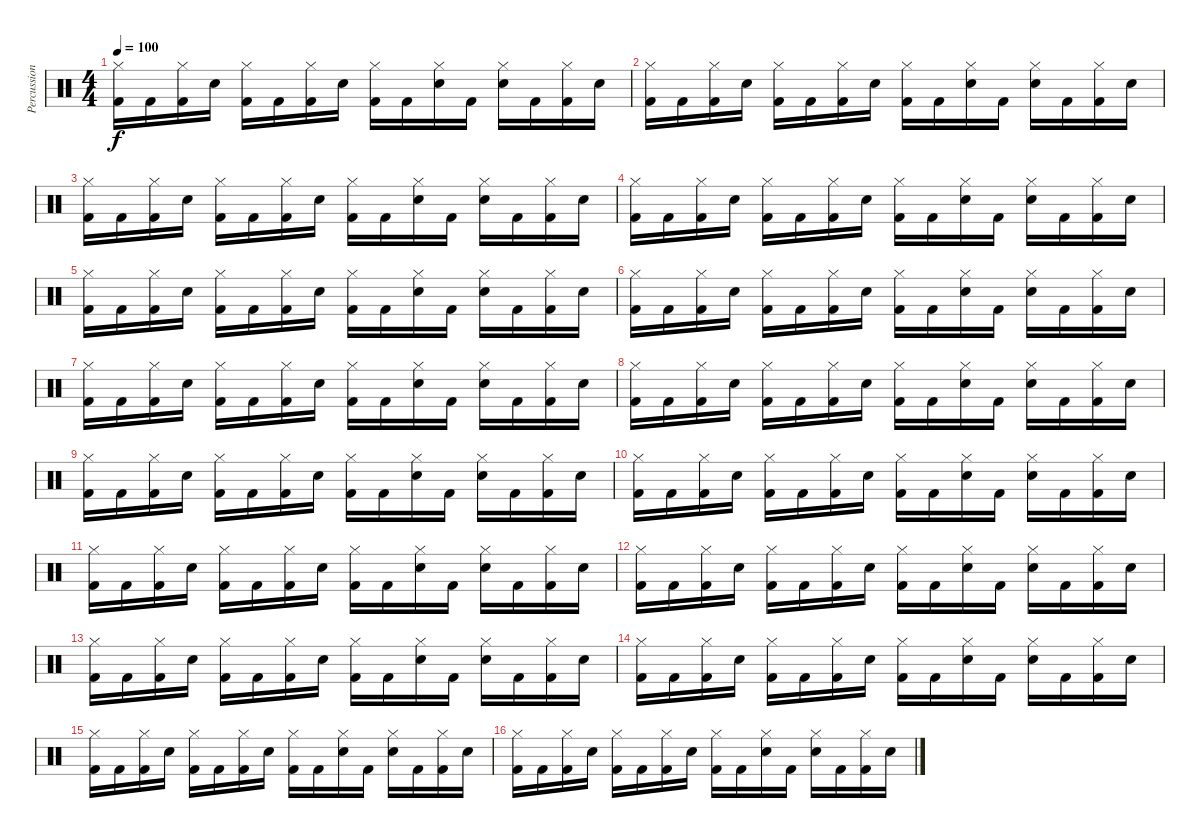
\track ("Percussion" "Percussion") {instrument percussion}
\staff {score}
\articulation defaults
\ts (4 4)
\tempo 100
\clef neutral
\ks c
("Hi-Hat (closed)" "Kick (hit) 2").16{dy f} "Kick (hit) 2".16 ("Hi-Hat (closed)" "Kick (hit) 2").16 "Electric Snare (hit)".16 ("Hi-Hat (closed)" "Kick (hit) 2").16 "Kick (hit) 2".16 ("Hi-Hat (closed)" "Kick (hit) 2").16 "Electric Snare (hit)".16 ("Hi-Hat (closed)" "Kick (hit) 2").16 "Kick (hit) 2".16 ("Hi-Hat (closed)" "Electric Snare (hit)").16 "Kick (hit) 2".16 ("Hi-Hat (closed)" "Electric Snare (hit)").16 "Kick (hit) 2".16 ("Hi-Hat (closed)" "Kick (hit) 2").16 "Electric Snare (hit)".16 |
("Hi-Hat (closed)" "Kick (hit) 2").16 "Kick (hit) 2".16 ("Hi-Hat (closed)" "Kick (hit) 2").16 "Electric Snare (hit)".16 ("Hi-Hat (closed)" "Kick (hit) 2").16 "Kick (hit) 2".16 ("Hi-Hat (closed)" "Kick (hit) 2").16 "Electric Snare (hit)".16 ("Hi-Hat (closed)" "Kick (hit) 2").16 "Kick (hit) 2".16 ("Hi-Hat (closed)" "Electric Snare (hit)").16 "Kick (hit) 2".16 ("Hi-Hat (closed)" "Electric Snare (hit)").16 "Kick (hit) 2".16 ("Hi-Hat (closed)" "Kick (hit) 2").16 "Electric Snare (hit)".16 |
("Hi-Hat (closed)" "Kick (hit) 2").16 "Kick (hit) 2".16 ("Hi-Hat (closed)" "Kick (hit) 2").16 "Electric Snare (hit)".16 ("Hi-Hat (closed)" "Kick (hit) 2").16 "Kick (hit) 2".16 ("Hi-Hat (closed)" "Kick (hit) 2").16 "Electric Snare (hit)".16 ("Hi-Hat (closed)" "Kick (hit) 2").16 "Kick (hit) 2".16 ("Hi-Hat (closed)" "Electric Snare (hit)").16 "Kick (hit) 2".16 ("Hi-Hat (closed)" "Electric Snare (hit)").16 "Kick (hit) 2".16 ("Hi-Hat (closed)" "Kick (hit) 2").16 "Electric Snare (hit)".16 |
("Hi-Hat (closed)" "Kick (hit) 2").16 "Kick (hit) 2".16 ("Hi-Hat (closed)" "Kick (hit) 2").16 "Electric Snare (hit)".16 ("Hi-Hat (closed)" "Kick (hit) 2").16 "Kick (hit) 2".16 ("Hi-Hat (closed)" "Kick (hit) 2").16 "Electric Snare (hit)".16 ("Hi-Hat (closed)" "Kick (hit) 2").16 "Kick (hit) 2".16 ("Hi-Hat (closed)" "Electric Snare (hit)").16 "Kick (hit) 2".16 ("Hi-Hat (closed)" "Electric Snare (hit)").16 "Kick (hit) 2".16 ("Hi-Hat (closed)" "Kick (hit) 2").16 "Electric Snare (hit)".16 |
("Hi-Hat (closed)" "Kick (hit) 2").16 "Kick (hit) 2".16 ("Hi-Hat (closed)" "Kick (hit) 2").16 "Electric Snare (hit)".16 ("Hi-Hat (closed)" "Kick (hit) 2").16 "Kick (hit) 2".16 ("Hi-Hat (closed)" "Kick (hit) 2").16 "Electric Snare (hit)".16 ("Hi-Hat (closed)" "Kick (hit) 2").16 "Kick (hit) 2".16 ("Hi-Hat (closed)" "Electric Snare (hit)").16 "Kick (hit) 2".16 ("Hi-Hat (closed)" "Electric Snare (hit)").16 "Kick (hit) 2".16 ("Hi-Hat (closed)" "Kick (hit) 2").16 "Electric Snare (hit)".16 |
("Hi-Hat (closed)" "Kick (hit) 2").16 "Kick (hit) 2".16 ("Hi-Hat (closed)" "Kick (hit) 2").16 "Electric Snare (hit)".16 ("Hi-Hat (closed)" "Kick (hit) 2").16 "Kick (hit) 2".16 ("Hi-Hat (closed)" "Kick (hit) 2").16 "Electric Snare (hit)".16 ("Hi-Hat (closed)" "Kick (hit) 2").16 "Kick (hit) 2".16 ("Hi-Hat (closed)" "Electric Snare (hit)").16 "Kick (hit) 2".16 ("Hi-Hat (closed)" "Electric Snare (hit)").16 "Kick (hit) 2".16 ("Hi-Hat (closed)" "Kick (hit) 2").16 "Electric Snare (hit)".16 |
("Hi-Hat (closed)" "Kick (hit) 2").16 "Kick (hit) 2".16 ("Hi-Hat (closed)" "Kick (hit) 2").16 "Electric Snare (hit)".16 ("Hi-Hat (closed)" "Kick (hit) 2").16 "Kick (hit) 2".16 ("Hi-Hat (closed)" "Kick (hit) 2").16 "Electric Snare (hit)".16 ("Hi-Hat (closed)" "Kick (hit) 2").16 "Kick (hit) 2".16 ("Hi-Hat (closed)" "Electric Snare (hit)").16 "Kick (hit) 2".16 ("Hi-Hat (closed)" "Electric Snare (hit)").16 "Kick (hit) 2".16 ("Hi-Hat (closed)" "Kick (hit) 2").16 "Electric Snare (hit)".16 |
("Hi-Hat (closed)" "Kick (hit) 2").16 "Kick (hit) 2".16 ("Hi-Hat (closed)" "Kick (hit) 2").16 "Electric Snare (hit)".16 ("Hi-Hat (closed)" "Kick (hit) 2").16 "Kick (hit) 2".16 ("Hi-Hat (closed)" "Kick (hit) 2").16 "Electric Snare (hit)".16 ("Hi-Hat (closed)" "Kick (hit) 2").16 "Kick (hit) 2".16 ("Hi-Hat (closed)" "Electric Snare (hit)").16 "Kick (hit) 2".16 ("Hi-Hat (closed)" "Electric Snare (hit)").16 "Kick (hit) 2".16 ("Hi-Hat (closed)" "Kick (hit) 2").16 "Electric Snare (hit)".16 |
("Hi-Hat (closed)" "Kick (hit) 2").16 "Kick (hit) 2".16 ("Hi-Hat (closed)" "Kick (hit) 2").16 "Electric Snare (hit)".16 ("Hi-Hat (closed)" "Kick (hit) 2").16 "Kick (hit) 2".16 ("Hi-Hat (closed)" "Kick (hit) 2").16 "Electric Snare (hit)".16 ("Hi-Hat (closed)" "Kick (hit) 2").16 "Kick (hit) 2".16 ("Hi-Hat (closed)" "Electric Snare (hit)").16 "Kick (hit) 2".16 ("Hi-Hat (closed)" "Electric Snare (hit)").16 "Kick (hit) 2".16 ("Hi-Hat (closed)" "Kick (hit) 2").16 "Electric Snare (hit)".16 |
("Hi-Hat (closed)" "Kick (hit) 2").16 "Kick (hit) 2".16 ("Hi-Hat (closed)" "Kick (hit) 2").16 "Electric Snare (hit)".16 ("Hi-Hat (closed)" "Kick (hit) 2").16 "Kick (hit) 2".16 ("Hi-Hat (closed)" "Kick (hit) 2").16 "Electric Snare (hit)".16 ("Hi-Hat (closed)" "Kick (hit) 2").16 "Kick (hit) 2".16 ("Hi-Hat (closed)" "Electric Snare (hit)").16 "Kick (hit) 2".16 ("Hi-Hat (closed)" "Electric Snare (hit)").16 "Kick (hit) 2".16 ("Hi-Hat (closed)" "Kick (hit) 2").16 "Electric Snare (hit)".16 |
("Hi-Hat (closed)" "Kick (hit) 2").16 "Kick (hit) 2".16 ("Hi-Hat (closed)" "Kick (hit) 2").16 "Electric Snare (hit)".16 ("Hi-Hat (closed)" "Kick (hit) 2").16 "Kick (hit) 2".16 ("Hi-Hat (closed)" "Kick (hit) 2").16 "Electric Snare (hit)".16 ("Hi-Hat (closed)" "Kick (hit) 2").16 "Kick (hit) 2".16 ("Hi-Hat (closed)" "Electric Snare (hit)").16 "Kick (hit) 2".16 ("Hi-Hat (closed)" "Electric Snare (hit)").16 "Kick (hit) 2".16 ("Hi-Hat (closed)" "Kick (hit) 2").16 "Electric Snare (hit)".16 |
("Hi-Hat (closed)" "Kick (hit) 2").16 "Kick (hit) 2".16 ("Hi-Hat (closed)" "Kick (hit) 2").16 "Electric Snare (hit)".16 ("Hi-Hat (closed)" "Kick (hit) 2").16 "Kick (hit) 2".16 ("Hi-Hat (closed)" "Kick (hit) 2").16 "Electric Snare (hit)".16 ("Hi-Hat (closed)" "Kick (hit) 2").16 "Kick (hit) 2".16 ("Hi-Hat (closed)" "Electric Snare (hit)").16 "Kick (hit) 2".16 ("Hi-Hat (closed)" "Electric Snare (hit)").16 "Kick (hit) 2".16 ("Hi-Hat (closed)" "Kick (hit) 2").16 "Electric Snare (hit)".16 |
("Hi-Hat (closed)" "Kick (hit) 2").16 "Kick (hit) 2".16 ("Hi-Hat (closed)" "Kick (hit) 2").16 "Electric Snare (hit)".16 ("Hi-Hat (closed)" "Kick (hit) 2").16 "Kick (hit) 2".16 ("Hi-Hat (closed)" "Kick (hit) 2").16 "Electric Snare (hit)".16 ("Hi-Hat (closed)" "Kick (hit) 2").16 "Kick (hit) 2".16 ("Hi-Hat (closed)" "Electric Snare (hit)").16 "Kick (hit) 2".16 ("Hi-Hat (closed)" "Electric Snare (hit)").16 "Kick (hit) 2".16 ("Hi-Hat (closed)" "Kick (hit) 2").16 "Electric Snare (hit)".16 |
("Hi-Hat (closed)" "Kick (hit) 2").16 "Kick (hit) 2".16 ("Hi-Hat (closed)" "Kick (hit) 2").16 "Electric Snare (hit)".16 ("Hi-Hat (closed)" "Kick (hit) 2").16 "Kick (hit) 2".16 ("Hi-Hat (closed)" "Kick (hit) 2").16 "Electric Snare (hit)".16 ("Hi-Hat (closed)" "Kick (hit) 2").16 "Kick (hit) 2".16 ("Hi-Hat (closed)" "Electric Snare (hit)").16 "Kick (hit) 2".16 ("Hi-Hat (closed)" "Electric Snare (hit)").16 "Kick (hit) 2".16 ("Hi-Hat (closed)" "Kick (hit) 2").16 "Electric Snare (hit)".16 |
("Hi-Hat (closed)" "Kick (hit) 2").16 "Kick (hit) 2".16 ("Hi-Hat (closed)" "Kick (hit) 2").16 "Electric Snare (hit)".16 ("Hi-Hat (closed)" "Kick (hit) 2").16 "Kick (hit) 2".16 ("Hi-Hat (closed)" "Kick (hit) 2").16 "Electric Snare (hit)".16 ("Hi-Hat (closed)" "Kick (hit) 2").16 "Kick (hit) 2".16 ("Hi-Hat (closed)" "Electric Snare (hit)").16 "Kick (hit) 2".16 ("Hi-Hat (closed)" "Electric Snare (hit)").16 "Kick (hit) 2".16 ("Hi-Hat (closed)" "Kick (hit) 2").16 "Electric Snare (hit)".16 |
("Hi-Hat (closed)" "Kick (hit) 2").16 "Kick (hit) 2".16 ("Hi-Hat (closed)" "Kick (hit) 2").16 "Electric Snare (hit)".16 ("Hi-Hat (closed)" "Kick (hit) 2").16 "Kick (hit) 2".16 ("Hi-Hat (closed)" "Kick (hit) 2").16 "Electric Snare (hit)".16 ("Hi-Hat (closed)" "Kick (hit) 2").16 "Kick (hit) 2".16 ("Hi-Hat (closed)" "Electric Snare (hit)").16 "Kick (hit) 2".16 ("Hi-Hat (closed)" "Electric Snare (hit)").16 "Kick (hit) 2".16 ("Hi-Hat (closed)" "Kick (hit) 2").16 "Electric Snare (hit)".16
